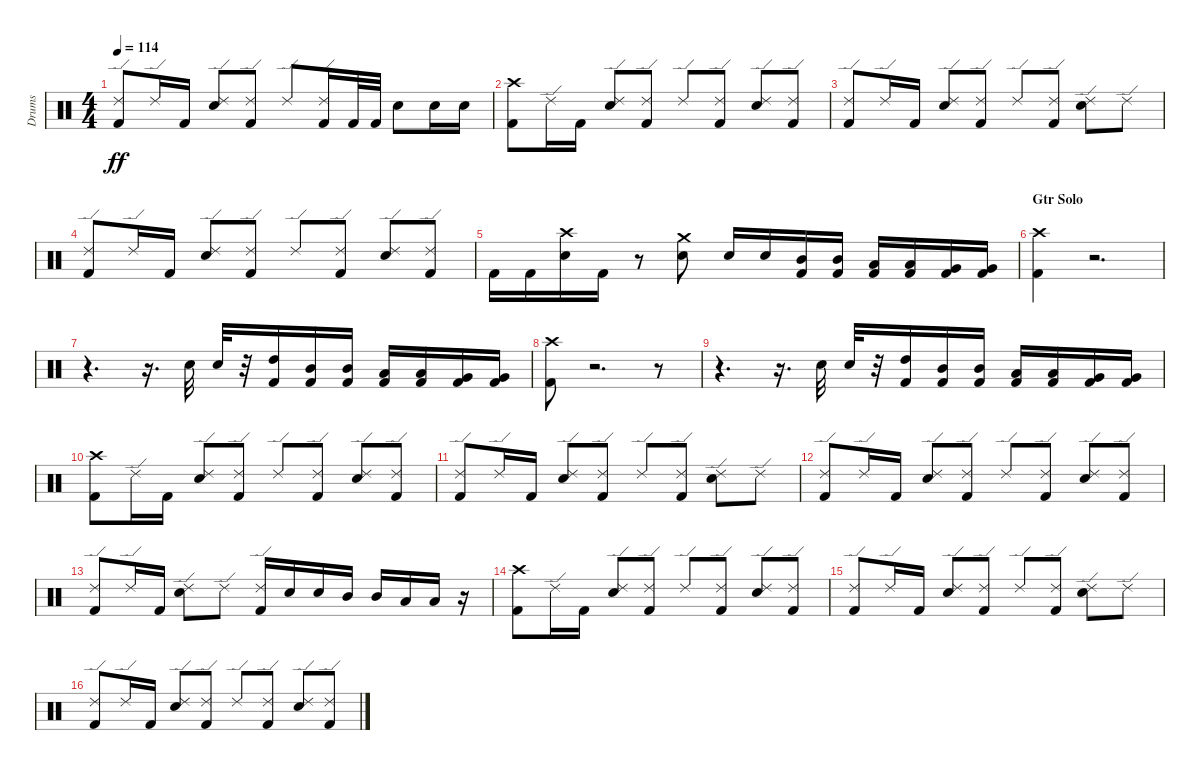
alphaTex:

\track ("Drums               " "Drums     ") {instrument percussion}
\staff {score}
\articulation defaults
\ts (4 4)
\tempo 114
\clef neutral
\ks c
("Kick (hit) 2" "Ride (edge) 2").8{dy ff} "Ride (edge) 2".16 "Kick (hit) 2".16 ("Electric Snare (hit)" "Ride (edge) 2").8 ("Kick (hit) 2" "Ride (edge) 2").8 "Ride (edge) 2".8 ("Kick (hit) 2" "Ride (edge) 2").16 "Kick (hit) 2".32 "Kick (hit) 2".32 "Electric Snare (hit)".8 "Electric Snare (hit)".16 "Electric Snare (hit)".16 |
("Kick (hit) 2" "Crash high (hit)").8 "Ride (edge) 2".16 "Kick (hit) 2".16 ("Electric Snare (hit)" "Ride (edge) 2").8 ("Kick (hit) 2" "Ride (edge) 2").8 "Ride (edge) 2".8 ("Kick (hit) 2" "Ride (edge) 2").8 ("Ride (edge) 2" "Electric Snare (hit)").8 ("Kick (hit) 2" "Ride (edge) 2").8 |
("Kick (hit) 2" "Ride (edge) 2").8 "Ride (edge) 2".16 "Kick (hit) 2".16 ("Electric Snare (hit)" "Ride (edge) 2").8 ("Kick (hit) 2" "Ride (edge) 2").8 "Ride (edge) 2".8 ("Ride (edge) 2" "Kick (hit) 2").8 ("Ride (edge) 2" "Electric Snare (hit)").8 "Ride (edge) 2".8 |
("Kick (hit) 2" "Ride (edge) 2").8 "Ride (edge) 2".16 "Kick (hit) 2".16 ("Electric Snare (hit)" "Ride (edge) 2").8 ("Kick (hit) 2" "Ride (edge) 2").8 "Ride (edge) 2".8 ("Kick (hit) 2" "Ride (edge) 2").8 ("Ride (edge) 2" "Electric Snare (hit)").8 ("Kick (hit) 2" "Ride (edge) 2").8 |
"Kick (hit) 2".16 "Kick (hit) 2".16 ("Crash high (hit)" "Electric Snare (hit)").16 "Kick (hit) 2".16 r.8 ("Crash medium (hit)" "Electric Snare (hit)").8 "Electric Snare (hit)".16 "Electric Snare (hit)".16 ("Kick (hit) 2" "Mid Tom (hit)").16 ("Kick (hit) 2" "Mid Tom (hit)").16 ("Kick (hit) 2" "Low Tom (hit)").16 ("Kick (hit) 2" "Low Tom (hit)").16 ("Kick (hit) 2" "Very Low Tom (hit)").16 ("Kick (hit) 2" "Very Low Tom (hit)").16 |
\section ("" "Gtr Solo")
("Crash high (hit)" "Kick (hit) 2").4 r.2{d} |
r.4{d} r.16{d} "Electric Snare (hit)".32 "Electric Snare (hit)".32 r.32 ("Kick (hit) 2" "High Tom (hit)").16 ("Kick (hit) 2" "Mid Tom (hit)").16 ("Kick (hit) 2" "Mid Tom (hit)").16 ("Kick (hit) 2" "Low Tom (hit)").16 ("Kick (hit) 2" "Low Tom (hit)").16 ("Kick (hit) 2" "Very Low Tom (hit)").16 ("Kick (hit) 2" "Very Low Tom (hit)").16 |
("Crash high (hit)" "Kick (hit) 2").8 r.2{d} r.8 |
r.4{d} r.16{d} "Electric Snare (hit)".32 "Electric Snare (hit)".32 r.32 ("Kick (hit) 2" "High Tom (hit)").16 ("Kick (hit) 2" "Mid Tom (hit)").16 ("Kick (hit) 2" "Mid Tom (hit)").16 ("Kick (hit) 2" "Low Tom (hit)").16 ("Kick (hit) 2" "Low Tom (hit)").16 ("Kick (hit) 2" "Very Low Tom (hit)").16 ("Kick (hit) 2" "Very Low Tom (hit)").16 |
("Kick (hit) 2" "Crash high (hit)").8 "Ride (edge) 2".16 "Kick (hit) 2".16 ("Ride (edge) 2" "Electric Snare (hit)").8 ("Ride (edge) 2" "Kick (hit) 2").8 "Ride (edge) 2".8 ("Kick (hit) 2" "Ride (edge) 2").8 ("Ride (edge) 2" "Electric Snare (hit)").8 ("Kick (hit) 2" "Ride (edge) 2").8 |
("Kick (hit) 2" "Ride (edge) 2").8 "Ride (edge) 2".16 "Kick (hit) 2".16 ("Ride (edge) 2" "Electric Snare (hit)").8 ("Kick (hit) 2" "Ride (edge) 2").8 "Ride (edge) 2".8 ("Kick (hit) 2" "Ride (edge) 2").8 ("Ride (edge) 2" "Electric Snare (hit)").8 "Ride (edge) 2".8 |
("Ride (edge) 2" "Kick (hit) 2").8 "Ride (edge) 2".16 "Kick (hit) 2".16 ("Electric Snare (hit)" "Ride (edge) 2").8 ("Kick (hit) 2" "Ride (edge) 2").8 "Ride (edge) 2".8 ("Ride (edge) 2" "Kick (hit) 2").8 ("Electric Snare (hit)" "Ride (edge) 2").8 ("Kick (hit) 2" "Ride (edge) 2").8 |
("Ride (edge) 2" "Kick (hit) 2").8 "Ride (edge) 2".16 "Kick (hit) 2".16 ("Electric Snare (hit)" "Ride (edge) 2").8 "Ride (edge) 2".8 ("Ride (edge) 2" "Kick (hit) 2").16 "Electric Snare (hit)".16 "Electric Snare (hit)".16 "Mid Tom (hit)".16 "Mid Tom (hit)".16 "Low Tom (hit)".16 "Low Tom (hit)".16 r.16 |
("Kick (hit) 2" "Crash high (hit)").8 "Ride (edge) 2".16 "Kick (hit) 2".16 ("Electric Snare (hit)" "Ride (edge) 2").8 ("Kick (hit) 2" "Ride (edge) 2").8 "Ride (edge) 2".8 ("Kick (hit) 2" "Ride (edge) 2").8 ("Ride (edge) 2" "Electric Snare (hit)").8 ("Kick (hit) 2" "Ride (edge) 2").8 |
("Kick (hit) 2" "Ride (edge) 2").8 "Ride (edge) 2".16 "Kick (hit) 2".16 ("Electric Snare (hit)" "Ride (edge) 2").8 ("Kick (hit) 2" "Ride (edge) 2").8 "Ride (edge) 2".8 ("Ride (edge) 2" "Kick (hit) 2").8 ("Ride (edge) 2" "Electric Snare (hit)").8 "Ride (edge) 2".8 |
("Kick (hit) 2" "Ride (edge) 2").8 "Ride (edge) 2".16 "Kick (hit) 2".16 ("Electric Snare (hit)" "Ride (edge) 2").8 ("Kick (hit) 2" "Ride (edge) 2").8 "Ride (edge) 2".8 ("Kick (hit) 2" "Ride (edge) 2").8 ("Ride (edge) 2" "Electric Snare (hit)").8 ("Kick (hit) 2" "Ride (edge) 2").8
